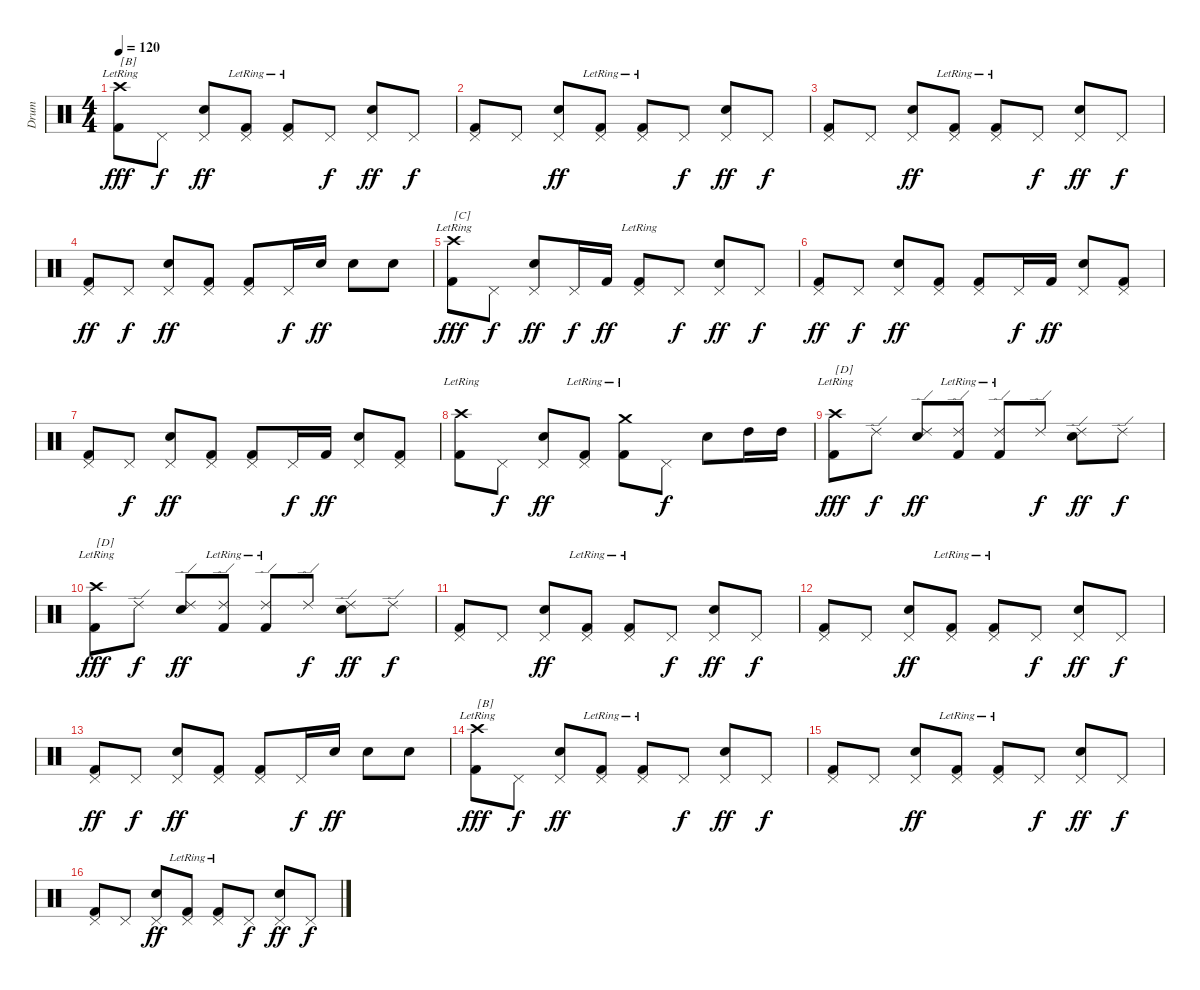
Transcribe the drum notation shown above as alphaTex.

\track ("Drum" "Drum") {instrument percussion}
\staff {score}
\articulation defaults
\ts (4 4)
\tempo 120
\clef neutral
\ks c
("Crash high (hit)"{lr} "Kick (hit) 2"{lr}).8{txt "[B]" dy fff} "Pedal Hi-Hat (hit)".8{dy f} ("Pedal Hi-Hat (hit)" "Snare (hit) 2").8{dy ff} ("Pedal Hi-Hat (hit)" "Kick (hit) 2"{lr}).8 ("Pedal Hi-Hat (hit)" "Kick (hit) 2"{lr}).8 "Pedal Hi-Hat (hit)".8{dy f} ("Pedal Hi-Hat (hit)" "Snare (hit) 2").8{dy ff} "Pedal Hi-Hat (hit)".8{dy f} |
("Pedal Hi-Hat (hit)" "Kick (hit) 2").8 "Pedal Hi-Hat (hit)".8 ("Pedal Hi-Hat (hit)" "Snare (hit) 2").8{dy ff} ("Pedal Hi-Hat (hit)" "Kick (hit) 2"{lr}).8 ("Pedal Hi-Hat (hit)" "Kick (hit) 2"{lr}).8 "Pedal Hi-Hat (hit)".8{dy f} ("Pedal Hi-Hat (hit)" "Snare (hit) 2").8{dy ff} "Pedal Hi-Hat (hit)".8{dy f} |
("Pedal Hi-Hat (hit)" "Kick (hit) 2").8 "Pedal Hi-Hat (hit)".8 ("Pedal Hi-Hat (hit)" "Snare (hit) 2").8{dy ff} ("Pedal Hi-Hat (hit)" "Kick (hit) 2"{lr}).8 ("Pedal Hi-Hat (hit)" "Kick (hit) 2"{lr}).8 "Pedal Hi-Hat (hit)".8{dy f} ("Pedal Hi-Hat (hit)" "Snare (hit) 2").8{dy ff} "Pedal Hi-Hat (hit)".8{dy f} |
("Pedal Hi-Hat (hit)" "Kick (hit) 2").8{dy ff} "Pedal Hi-Hat (hit)".8{dy f} ("Pedal Hi-Hat (hit)" "Snare (hit) 2").8{dy ff} ("Pedal Hi-Hat (hit)" "Kick (hit) 2").8 ("Pedal Hi-Hat (hit)" "Kick (hit) 2").8 "Pedal Hi-Hat (hit)".16{dy f} "Snare (hit) 2".16{dy ff} "Snare (hit) 2".8 "Snare (hit) 2".8 |
("Crash high (hit)"{lr} "Kick (hit) 2"{lr}).8{txt "[C]" dy fff} "Pedal Hi-Hat (hit)".8{dy f} ("Pedal Hi-Hat (hit)" "Snare (hit) 2").8{dy ff} "Pedal Hi-Hat (hit)".16{dy f} "Kick (hit) 2".16{dy ff} ("Pedal Hi-Hat (hit)" "Kick (hit) 2"{lr}).8 "Pedal Hi-Hat (hit)".8{dy f} ("Pedal Hi-Hat (hit)" "Snare (hit) 2").8{dy ff} "Pedal Hi-Hat (hit)".8{dy f} |
("Pedal Hi-Hat (hit)" "Kick (hit) 2").8{dy ff} "Pedal Hi-Hat (hit)".8{dy f} ("Pedal Hi-Hat (hit)" "Snare (hit) 2").8{dy ff} ("Pedal Hi-Hat (hit)" "Kick (hit) 2").8 ("Pedal Hi-Hat (hit)" "Kick (hit) 2").8 "Pedal Hi-Hat (hit)".16{dy f} "Kick (hit) 2".16{dy ff} ("Pedal Hi-Hat (hit)" "Snare (hit) 2").8 ("Pedal Hi-Hat (hit)" "Kick (hit) 2").8 |
("Pedal Hi-Hat (hit)" "Kick (hit) 2").8 "Pedal Hi-Hat (hit)".8{dy f} ("Pedal Hi-Hat (hit)" "Snare (hit) 2").8{dy ff} ("Pedal Hi-Hat (hit)" "Kick (hit) 2").8 ("Pedal Hi-Hat (hit)" "Kick (hit) 2").8 "Pedal Hi-Hat (hit)".16{dy f} "Kick (hit) 2".16{dy ff} ("Pedal Hi-Hat (hit)" "Snare (hit) 2").8 ("Pedal Hi-Hat (hit)" "Kick (hit) 2").8 |
("Crash high (hit)" "Kick (hit) 2"{lr}).8 "Pedal Hi-Hat (hit)".8{dy f} ("Pedal Hi-Hat (hit)" "Snare (hit) 2").8{dy ff} ("Pedal Hi-Hat (hit)" "Kick (hit) 2"{lr}).8 ("Crash medium (hit)" "Kick (hit) 2"{lr}).8 "Pedal Hi-Hat (hit)".8{dy f} "Snare (hit) 2".8 "High Tom (hit)".16 "High Tom (hit)".16 |
("Crash high (hit)"{lr} "Kick (hit) 2"{lr}).8{txt "[D]" dy fff} "Ride (edge) 2".8{dy f} ("Ride (edge) 2" "Snare (hit) 2").8{dy ff} ("Ride (edge) 2" "Kick (hit) 2"{lr}).8 ("Ride (edge) 2" "Kick (hit) 2"{lr}).8 "Ride (edge) 2".8{dy f} ("Ride (edge) 2" "Snare (hit) 2").8{dy ff} "Ride (edge) 2".8{dy f} |
("Crash high (hit)"{lr} "Kick (hit) 2"{lr}).8{txt "[D]" dy fff} "Ride (edge) 2".8{dy f} ("Ride (edge) 2" "Snare (hit) 2").8{dy ff} ("Ride (edge) 2" "Kick (hit) 2"{lr}).8 ("Ride (edge) 2" "Kick (hit) 2"{lr}).8 "Ride (edge) 2".8{dy f} ("Ride (edge) 2" "Snare (hit) 2").8{dy ff} "Ride (edge) 2".8{dy f} |
("Pedal Hi-Hat (hit)" "Kick (hit) 2").8 "Pedal Hi-Hat (hit)".8 ("Pedal Hi-Hat (hit)" "Snare (hit) 2").8{dy ff} ("Pedal Hi-Hat (hit)" "Kick (hit) 2"{lr}).8 ("Pedal Hi-Hat (hit)" "Kick (hit) 2"{lr}).8 "Pedal Hi-Hat (hit)".8{dy f} ("Pedal Hi-Hat (hit)" "Snare (hit) 2").8{dy ff} "Pedal Hi-Hat (hit)".8{dy f} |
("Pedal Hi-Hat (hit)" "Kick (hit) 2").8 "Pedal Hi-Hat (hit)".8 ("Pedal Hi-Hat (hit)" "Snare (hit) 2").8{dy ff} ("Pedal Hi-Hat (hit)" "Kick (hit) 2"{lr}).8 ("Pedal Hi-Hat (hit)" "Kick (hit) 2"{lr}).8 "Pedal Hi-Hat (hit)".8{dy f} ("Pedal Hi-Hat (hit)" "Snare (hit) 2").8{dy ff} "Pedal Hi-Hat (hit)".8{dy f} |
("Pedal Hi-Hat (hit)" "Kick (hit) 2").8{dy ff} "Pedal Hi-Hat (hit)".8{dy f} ("Pedal Hi-Hat (hit)" "Snare (hit) 2").8{dy ff} ("Pedal Hi-Hat (hit)" "Kick (hit) 2").8 ("Pedal Hi-Hat (hit)" "Kick (hit) 2").8 "Pedal Hi-Hat (hit)".16{dy f} "Snare (hit) 2".16{dy ff} "Snare (hit) 2".8 "Snare (hit) 2".8 |
("Crash high (hit)"{lr} "Kick (hit) 2"{lr}).8{txt "[B]" dy fff} "Pedal Hi-Hat (hit)".8{dy f} ("Pedal Hi-Hat (hit)" "Snare (hit) 2").8{dy ff} ("Pedal Hi-Hat (hit)" "Kick (hit) 2"{lr}).8 ("Pedal Hi-Hat (hit)" "Kick (hit) 2"{lr}).8 "Pedal Hi-Hat (hit)".8{dy f} ("Pedal Hi-Hat (hit)" "Snare (hit) 2").8{dy ff} "Pedal Hi-Hat (hit)".8{dy f} |
("Pedal Hi-Hat (hit)" "Kick (hit) 2").8 "Pedal Hi-Hat (hit)".8 ("Pedal Hi-Hat (hit)" "Snare (hit) 2").8{dy ff} ("Pedal Hi-Hat (hit)" "Kick (hit) 2"{lr}).8 ("Pedal Hi-Hat (hit)" "Kick (hit) 2"{lr}).8 "Pedal Hi-Hat (hit)".8{dy f} ("Pedal Hi-Hat (hit)" "Snare (hit) 2").8{dy ff} "Pedal Hi-Hat (hit)".8{dy f} |
("Pedal Hi-Hat (hit)" "Kick (hit) 2").8 "Pedal Hi-Hat (hit)".8 ("Pedal Hi-Hat (hit)" "Snare (hit) 2").8{dy ff} ("Pedal Hi-Hat (hit)" "Kick (hit) 2"{lr}).8 ("Pedal Hi-Hat (hit)" "Kick (hit) 2"{lr}).8 "Pedal Hi-Hat (hit)".8{dy f} ("Pedal Hi-Hat (hit)" "Snare (hit) 2").8{dy ff} "Pedal Hi-Hat (hit)".8{dy f}
